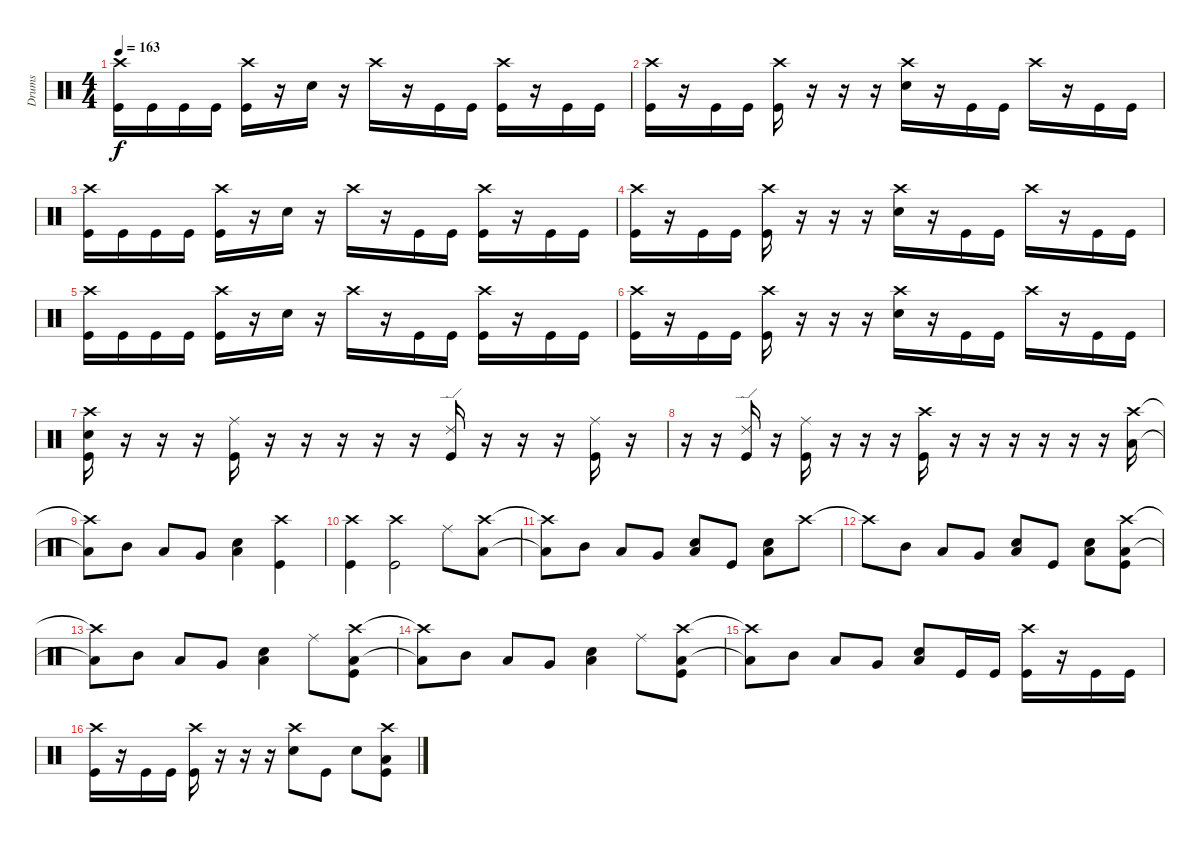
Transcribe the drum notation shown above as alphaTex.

\track ("Drums" "Drums") {instrument percussion}
\staff {score}
\articulation defaults
\ts (4 4)
\tempo 163
\clef neutral
\ks c
("Crash high (hit)" "Kick (hit)").16{dy f} "Kick (hit)".16 "Kick (hit)".16 "Kick (hit)".16 ("Crash high (hit)" "Kick (hit)").16 r.16 "Snare (hit) 2".16 r.16 "Crash high (hit)".16 r.16 "Kick (hit)".16 "Kick (hit)".16 ("Crash high (hit)" "Kick (hit)").16 r.16 "Kick (hit)".16 "Kick (hit)".16 |
("Crash high (hit)" "Kick (hit)").16 r.16 "Kick (hit)".16 "Kick (hit)".16 ("Crash high (hit)" "Kick (hit)").16 r.16 r.16 r.16 ("Crash high (hit)" "Snare (hit) 2").16 r.16 "Kick (hit)".16 "Kick (hit)".16 "Crash high (hit)".16 r.16 "Kick (hit)".16 "Kick (hit)".16 |
("Crash high (hit)" "Kick (hit)").16 "Kick (hit)".16 "Kick (hit)".16 "Kick (hit)".16 ("Crash high (hit)" "Kick (hit)").16 r.16 "Snare (hit) 2".16 r.16 "Crash high (hit)".16 r.16 "Kick (hit)".16 "Kick (hit)".16 ("Crash high (hit)" "Kick (hit)").16 r.16 "Kick (hit)".16 "Kick (hit)".16 |
("Crash high (hit)" "Kick (hit)").16 r.16 "Kick (hit)".16 "Kick (hit)".16 ("Crash high (hit)" "Kick (hit)").16 r.16 r.16 r.16 ("Crash high (hit)" "Snare (hit) 2").16 r.16 "Kick (hit)".16 "Kick (hit)".16 "Crash high (hit)".16 r.16 "Kick (hit)".16 "Kick (hit)".16 |
("Crash high (hit)" "Kick (hit)").16 "Kick (hit)".16 "Kick (hit)".16 "Kick (hit)".16 ("Crash high (hit)" "Kick (hit)").16 r.16 "Snare (hit) 2".16 r.16 "Crash high (hit)".16 r.16 "Kick (hit)".16 "Kick (hit)".16 ("Crash high (hit)" "Kick (hit)").16 r.16 "Kick (hit)".16 "Kick (hit)".16 |
("Crash high (hit)" "Kick (hit)").16 r.16 "Kick (hit)".16 "Kick (hit)".16 ("Crash high (hit)" "Kick (hit)").16 r.16 r.16 r.16 ("Crash high (hit)" "Snare (hit) 2").16 r.16 "Kick (hit)".16 "Kick (hit)".16 "Crash high (hit)".16 r.16 "Kick (hit)".16 "Kick (hit)".16 |
("Crash high (hit)" "Snare (hit) 2" "Kick (hit)").16 r.16 r.16 r.16 ("Ride (middle)" "Kick (hit)").16 r.16 r.16 r.16 r.16 r.16 ("Ride (edge) 2" "Kick (hit)").16 r.16 r.16 r.16 ("Ride (middle)" "Kick (hit)").16 r.16 |
r.16 r.16 ("Ride (edge) 2" "Kick (hit)").16 r.16 ("Ride (middle)" "Kick (hit)").16 r.16 r.16 r.16 ("Crash high (hit)" "Kick (hit)").16 r.16 r.16 r.16 r.16 r.16 r.16 ("Crash high (hit)" "Low Floor Tom (hit)").16 |
("Crash high (hit)"{t} "Low Floor Tom (hit)"{t}).8 "Mid Tom (hit)".8 "Low Tom (hit)".8 "Very Low Tom (hit)".8 ("Snare (hit) 2" "Low Floor Tom (hit)").4 ("Crash high (hit)" "Kick (hit)").4 |
("Crash high (hit)" "Kick (hit)").4 ("Crash high (hit)" "Kick (hit)").2 "Ride (middle)".8 ("Crash high (hit)" "Low Floor Tom (hit)").8 |
("Crash high (hit)"{t} "Low Floor Tom (hit)"{t}).8 "Mid Tom (hit)".8 "Low Tom (hit)".8 "Very Low Tom (hit)".8 ("Snare (hit) 2" "Low Floor Tom (hit)").8 "Kick (hit)".8 ("Snare (hit) 2" "Low Floor Tom (hit)").8 "Crash high (hit)".8 |
"Crash high (hit)"{t}.8 "Mid Tom (hit)".8 "Low Tom (hit)".8 "Very Low Tom (hit)".8 ("Snare (hit) 2" "Low Floor Tom (hit)").8 "Kick (hit)".8 ("Snare (hit) 2" "Low Floor Tom (hit)").8 ("Crash high (hit)" "Low Floor Tom (hit)" "Kick (hit)").8 |
("Crash high (hit)"{t} "Low Floor Tom (hit)"{t}).8 "Mid Tom (hit)".8 "Low Tom (hit)".8 "Very Low Tom (hit)".8 ("Snare (hit) 2" "Low Floor Tom (hit)").4 "Ride (middle)".8 ("Crash high (hit)" "Low Floor Tom (hit)" "Kick (hit)").8 |
("Crash high (hit)"{t} "Low Floor Tom (hit)"{t}).8 "Mid Tom (hit)".8 "Low Tom (hit)".8 "Very Low Tom (hit)".8 ("Snare (hit) 2" "Low Floor Tom (hit)").4 "Ride (middle)".8 ("Crash high (hit)" "Low Floor Tom (hit)" "Kick (hit)").8 |
("Crash high (hit)"{t} "Low Floor Tom (hit)"{t}).8 "Mid Tom (hit)".8 "Low Tom (hit)".8 "Very Low Tom (hit)".8 ("Snare (hit) 2" "Low Floor Tom (hit)").8 "Kick (hit)".16 "Kick (hit)".16 ("Crash high (hit)" "Kick (hit)").16 r.16 "Kick (hit)".16 "Kick (hit)".16 |
("Crash high (hit)" "Kick (hit)").16 r.16 "Kick (hit)".16 "Kick (hit)".16 ("Crash high (hit)" "Kick (hit)").16 r.16 r.16 r.16 ("Crash high (hit)" "Snare (hit) 2").8 "Kick (hit)".8 "Snare (hit) 2".8 ("Crash high (hit)" "Low Floor Tom (hit)" "Kick (hit)").8
